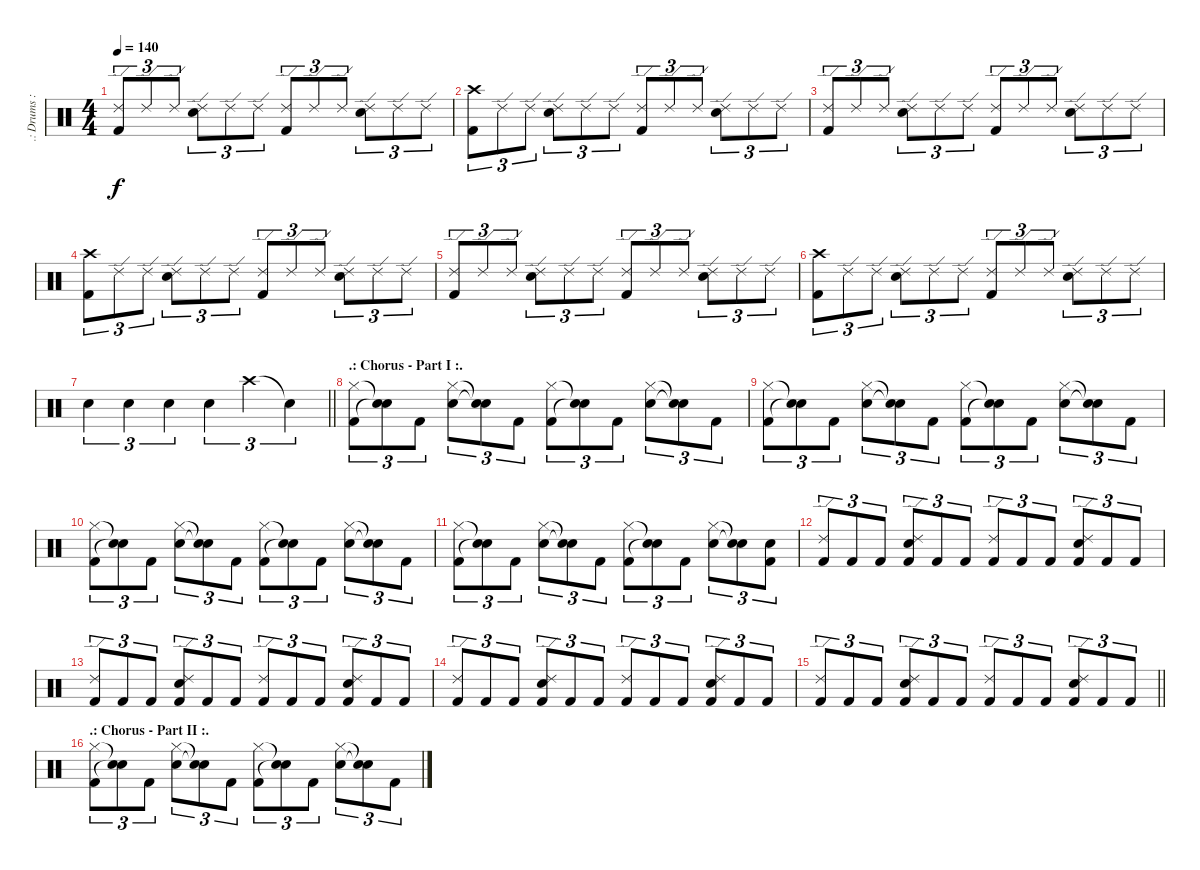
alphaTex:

\track (".: Drums :." ".: Drums :") {instrument percussion}
\staff {score}
\articulation defaults
\ts (4 4)
\tempo 140
\clef neutral
\ks c
("Ride (edge) 2" "Kick (hit) 2").8{tu (3 2) dy f} "Ride (edge) 2".8{tu (3 2)} "Ride (edge) 2".8{tu (3 2)} ("Ride (edge) 2" "Snare (hit) 2").8{tu (3 2)} "Ride (edge) 2".8{tu (3 2)} "Ride (edge) 2".8{tu (3 2)} ("Ride (edge) 2" "Kick (hit) 2").8{tu (3 2)} "Ride (edge) 2".8{tu (3 2)} "Ride (edge) 2".8{tu (3 2)} ("Ride (edge) 2" "Snare (hit) 2").8{tu (3 2)} "Ride (edge) 2".8{tu (3 2)} "Ride (edge) 2".8{tu (3 2)} |
("Crash high (hit)" "Kick (hit) 2").8{tu (3 2)} "Ride (edge) 2".8{tu (3 2)} "Ride (edge) 2".8{tu (3 2)} ("Ride (edge) 2" "Snare (hit) 2").8{tu (3 2)} "Ride (edge) 2".8{tu (3 2)} "Ride (edge) 2".8{tu (3 2)} ("Ride (edge) 2" "Kick (hit) 2").8{tu (3 2)} "Ride (edge) 2".8{tu (3 2)} "Ride (edge) 2".8{tu (3 2)} ("Ride (edge) 2" "Snare (hit) 2").8{tu (3 2)} "Ride (edge) 2".8{tu (3 2)} "Ride (edge) 2".8{tu (3 2)} |
("Ride (edge) 2" "Kick (hit) 2").8{tu (3 2)} "Ride (edge) 2".8{tu (3 2)} "Ride (edge) 2".8{tu (3 2)} ("Ride (edge) 2" "Snare (hit) 2").8{tu (3 2)} "Ride (edge) 2".8{tu (3 2)} "Ride (edge) 2".8{tu (3 2)} ("Ride (edge) 2" "Kick (hit) 2").8{tu (3 2)} "Ride (edge) 2".8{tu (3 2)} "Ride (edge) 2".8{tu (3 2)} ("Ride (edge) 2" "Snare (hit) 2").8{tu (3 2)} "Ride (edge) 2".8{tu (3 2)} "Ride (edge) 2".8{tu (3 2)} |
("Crash high (hit)" "Kick (hit) 2").8{tu (3 2)} "Ride (edge) 2".8{tu (3 2)} "Ride (edge) 2".8{tu (3 2)} ("Ride (edge) 2" "Snare (hit) 2").8{tu (3 2)} "Ride (edge) 2".8{tu (3 2)} "Ride (edge) 2".8{tu (3 2)} ("Ride (edge) 2" "Kick (hit) 2").8{tu (3 2)} "Ride (edge) 2".8{tu (3 2)} "Ride (edge) 2".8{tu (3 2)} ("Ride (edge) 2" "Snare (hit) 2").8{tu (3 2)} "Ride (edge) 2".8{tu (3 2)} "Ride (edge) 2".8{tu (3 2)} |
("Ride (edge) 2" "Kick (hit) 2").8{tu (3 2)} "Ride (edge) 2".8{tu (3 2)} "Ride (edge) 2".8{tu (3 2)} ("Ride (edge) 2" "Snare (hit) 2").8{tu (3 2)} "Ride (edge) 2".8{tu (3 2)} "Ride (edge) 2".8{tu (3 2)} ("Ride (edge) 2" "Kick (hit) 2").8{tu (3 2)} "Ride (edge) 2".8{tu (3 2)} "Ride (edge) 2".8{tu (3 2)} ("Ride (edge) 2" "Snare (hit) 2").8{tu (3 2)} "Ride (edge) 2".8{tu (3 2)} "Ride (edge) 2".8{tu (3 2)} |
("Crash high (hit)" "Kick (hit) 2").8{tu (3 2)} "Ride (edge) 2".8{tu (3 2)} "Ride (edge) 2".8{tu (3 2)} ("Ride (edge) 2" "Snare (hit) 2").8{tu (3 2)} "Ride (edge) 2".8{tu (3 2)} "Ride (edge) 2".8{tu (3 2)} ("Ride (edge) 2" "Kick (hit) 2").8{tu (3 2)} "Ride (edge) 2".8{tu (3 2)} "Ride (edge) 2".8{tu (3 2)} ("Ride (edge) 2" "Snare (hit) 2").8{tu (3 2)} "Ride (edge) 2".8{tu (3 2)} "Ride (edge) 2".8{tu (3 2)} |
\barLineRight lightlight "Snare (hit) 2".4{tu (3 2)} "Snare (hit) 2".4{tu (3 2)} "Snare (hit) 2".4{tu (3 2)} "Snare (hit) 2".4{tu (3 2)} "Crash high (hit)".4{tu (3 2)} "Snare (hit)"{t}.4{tu (3 2)}
|
\section ("" ".: Chorus - Part I :.")
("Hi-Hat (closed)" "Kick (hit) 2").8{tu (3 2)} ("Snare (hit)"{t} "Snare (hit)"{t}).8{tu (3 2)} "Kick (hit) 2".8{tu (3 2)} ("Hi-Hat (closed)" "Snare (hit) 2").8{tu (3 2)} ("Snare (hit)"{t} "Snare (hit)"{t}).8{tu (3 2)} "Kick (hit) 2".8{tu (3 2)} ("Hi-Hat (closed)" "Kick (hit) 2").8{tu (3 2)} ("Snare (hit)"{t} "Snare (hit)"{t}).8{tu (3 2)} "Kick (hit) 2".8{tu (3 2)} ("Hi-Hat (closed)" "Snare (hit) 2").8{tu (3 2)} ("Snare (hit)"{t} "Snare (hit)"{t}).8{tu (3 2)} "Kick (hit) 2".8{tu (3 2)} |
("Hi-Hat (closed)" "Kick (hit) 2").8{tu (3 2)} ("Snare (hit)"{t} "Snare (hit)"{t}).8{tu (3 2)} "Kick (hit) 2".8{tu (3 2)} ("Hi-Hat (closed)" "Snare (hit) 2").8{tu (3 2)} ("Snare (hit)"{t} "Snare (hit)"{t}).8{tu (3 2)} "Kick (hit) 2".8{tu (3 2)} ("Hi-Hat (closed)" "Kick (hit) 2").8{tu (3 2)} ("Snare (hit)"{t} "Snare (hit)"{t}).8{tu (3 2)} "Kick (hit) 2".8{tu (3 2)} ("Hi-Hat (closed)" "Snare (hit) 2").8{tu (3 2)} ("Snare (hit)"{t} "Snare (hit)"{t}).8{tu (3 2)} "Kick (hit) 2".8{tu (3 2)} |
("Hi-Hat (closed)" "Kick (hit) 2").8{tu (3 2)} ("Snare (hit)"{t} "Snare (hit)"{t}).8{tu (3 2)} "Kick (hit) 2".8{tu (3 2)} ("Hi-Hat (closed)" "Snare (hit) 2").8{tu (3 2)} ("Snare (hit)"{t} "Snare (hit)"{t}).8{tu (3 2)} "Kick (hit) 2".8{tu (3 2)} ("Hi-Hat (closed)" "Kick (hit) 2").8{tu (3 2)} ("Snare (hit)"{t} "Snare (hit)"{t}).8{tu (3 2)} "Kick (hit) 2".8{tu (3 2)} ("Hi-Hat (closed)" "Snare (hit) 2").8{tu (3 2)} ("Snare (hit)"{t} "Snare (hit)"{t}).8{tu (3 2)} "Kick (hit) 2".8{tu (3 2)} |
("Hi-Hat (closed)" "Kick (hit) 2").8{tu (3 2)} ("Snare (hit)"{t} "Snare (hit)"{t}).8{tu (3 2)} "Kick (hit) 2".8{tu (3 2)} ("Hi-Hat (closed)" "Snare (hit) 2").8{tu (3 2)} ("Snare (hit)"{t} "Snare (hit)"{t}).8{tu (3 2)} "Kick (hit) 2".8{tu (3 2)} ("Hi-Hat (closed)" "Kick (hit) 2").8{tu (3 2)} ("Snare (hit)"{t} "Snare (hit)"{t}).8{tu (3 2)} "Kick (hit) 2".8{tu (3 2)} ("Hi-Hat (closed)" "Snare (hit) 2").8{tu (3 2)} ("Snare (hit)"{t} "Snare (hit)"{t}).8{tu (3 2)} ("Snare (hit) 2" "Kick (hit) 2").8{tu (3 2)} |
("Ride (edge) 2" "Kick (hit) 2").8{tu (3 2)} "Kick (hit) 2".8{tu (3 2)} "Kick (hit) 2".8{tu (3 2)} ("Ride (edge) 2" "Snare (hit) 2" "Kick (hit) 2").8{tu (3 2)} "Kick (hit) 2".8{tu (3 2)} "Kick (hit) 2".8{tu (3 2)} ("Ride (edge) 2" "Kick (hit) 2").8{tu (3 2)} "Kick (hit) 2".8{tu (3 2)} "Kick (hit) 2".8{tu (3 2)} ("Ride (edge) 2" "Snare (hit) 2" "Kick (hit) 2").8{tu (3 2)} "Kick (hit) 2".8{tu (3 2)} "Kick (hit) 2".8{tu (3 2)} |
("Ride (edge) 2" "Kick (hit) 2").8{tu (3 2)} "Kick (hit) 2".8{tu (3 2)} "Kick (hit) 2".8{tu (3 2)} ("Ride (edge) 2" "Snare (hit) 2" "Kick (hit) 2").8{tu (3 2)} "Kick (hit) 2".8{tu (3 2)} "Kick (hit) 2".8{tu (3 2)} ("Ride (edge) 2" "Kick (hit) 2").8{tu (3 2)} "Kick (hit) 2".8{tu (3 2)} "Kick (hit) 2".8{tu (3 2)} ("Ride (edge) 2" "Snare (hit) 2" "Kick (hit) 2").8{tu (3 2)} "Kick (hit) 2".8{tu (3 2)} "Kick (hit) 2".8{tu (3 2)} |
("Ride (edge) 2" "Kick (hit) 2").8{tu (3 2)} "Kick (hit) 2".8{tu (3 2)} "Kick (hit) 2".8{tu (3 2)} ("Ride (edge) 2" "Snare (hit) 2" "Kick (hit) 2").8{tu (3 2)} "Kick (hit) 2".8{tu (3 2)} "Kick (hit) 2".8{tu (3 2)} ("Ride (edge) 2" "Kick (hit) 2").8{tu (3 2)} "Kick (hit) 2".8{tu (3 2)} "Kick (hit) 2".8{tu (3 2)} ("Ride (edge) 2" "Snare (hit) 2" "Kick (hit) 2").8{tu (3 2)} "Kick (hit) 2".8{tu (3 2)} "Kick (hit) 2".8{tu (3 2)} |
\barLineRight lightlight
("Ride (edge) 2" "Kick (hit) 2").8{tu (3 2)} "Kick (hit) 2".8{tu (3 2)} "Kick (hit) 2".8{tu (3 2)} ("Ride (edge) 2" "Snare (hit) 2" "Kick (hit) 2").8{tu (3 2)} "Kick (hit) 2".8{tu (3 2)} "Kick (hit) 2".8{tu (3 2)} ("Ride (edge) 2" "Kick (hit) 2").8{tu (3 2)} "Kick (hit) 2".8{tu (3 2)} "Kick (hit) 2".8{tu (3 2)} ("Ride (edge) 2" "Snare (hit) 2" "Kick (hit) 2").8{tu (3 2)} "Kick (hit) 2".8{tu (3 2)} "Kick (hit) 2".8{tu (3 2)} |
\section ("" ".: Chorus - Part II :.")
("Hi-Hat (closed)" "Kick (hit) 2").8{tu (3 2)} ("Snare (hit)"{t} "Snare (hit)"{t}).8{tu (3 2)} "Kick (hit) 2".8{tu (3 2)} ("Hi-Hat (closed)" "Snare (hit) 2").8{tu (3 2)} ("Snare (hit)"{t} "Snare (hit)"{t}).8{tu (3 2)} "Kick (hit) 2".8{tu (3 2)} ("Hi-Hat (closed)" "Kick (hit) 2").8{tu (3 2)} ("Snare (hit)"{t} "Snare (hit)"{t}).8{tu (3 2)} "Kick (hit) 2".8{tu (3 2)} ("Hi-Hat (closed)" "Snare (hit) 2").8{tu (3 2)} ("Snare (hit)"{t} "Snare (hit)"{t}).8{tu (3 2)} "Kick (hit) 2".8{tu (3 2)}
